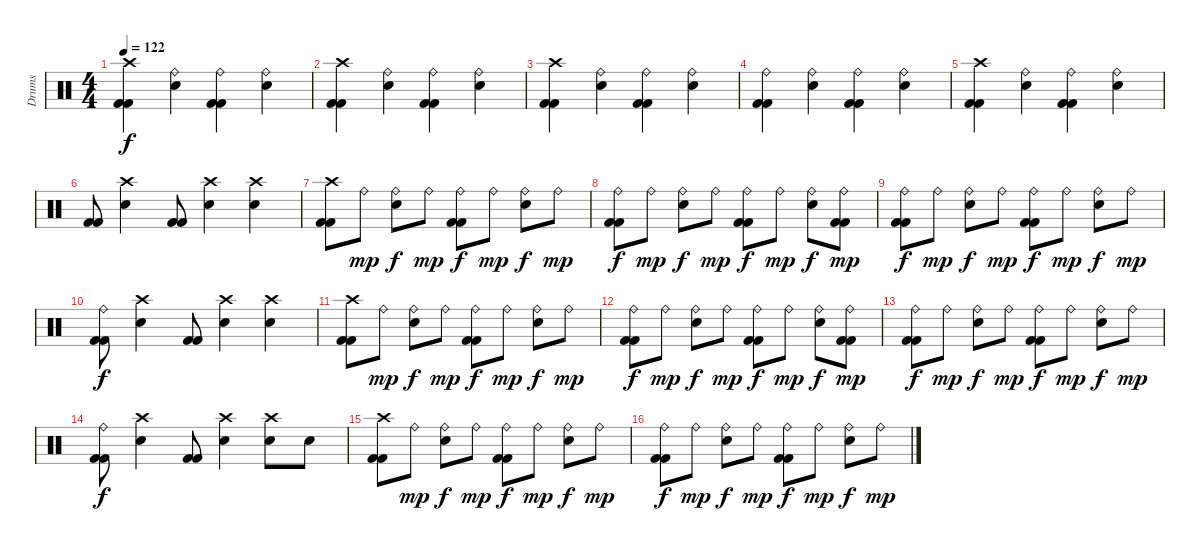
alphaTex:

\track ("Drums" "Drums") {instrument percussion}
\staff {score}
\articulation defaults
\ts (4 4)
\tempo 122
\clef neutral
\ks c
("Crash high (hit)" "Kick (hit) 2" "Kick (hit) 2").4{dy f} ("Ride (bell)" "Snare (hit) 2").4 ("Ride (bell)" "Kick (hit) 2" "Kick (hit) 2").4 ("Ride (bell)" "Snare (hit) 2").4 |
("Crash high (hit)" "Kick (hit) 2" "Kick (hit) 2").4 ("Ride (bell)" "Snare (hit) 2").4 ("Ride (bell)" "Kick (hit) 2" "Kick (hit) 2").4 ("Ride (bell)" "Snare (hit) 2").4 |
("Crash high (hit)" "Kick (hit) 2" "Kick (hit) 2").4 ("Ride (bell)" "Snare (hit) 2").4 ("Ride (bell)" "Kick (hit) 2" "Kick (hit) 2").4 ("Ride (bell)" "Snare (hit) 2").4 |
("Ride (bell)" "Kick (hit) 2" "Kick (hit) 2").4 ("Ride (bell)" "Snare (hit) 2").4 ("Ride (bell)" "Kick (hit) 2" "Kick (hit) 2").4 ("Ride (bell)" "Snare (hit) 2").4 |
("Crash high (hit)" "Kick (hit) 2" "Kick (hit) 2").4 ("Ride (bell)" "Snare (hit) 2").4 ("Ride (bell)" "Kick (hit) 2" "Kick (hit) 2").4 ("Ride (bell)" "Snare (hit) 2").4 |
("Kick (hit) 2" "Kick (hit) 2").8 ("Crash high (hit)" "Snare (hit) 2").4 ("Kick (hit) 2" "Kick (hit) 2").8 ("Crash high (hit)" "Snare (hit) 2").4 ("Crash high (hit)" "Snare (hit) 2").4 |
("Crash high (hit)" "Kick (hit) 2" "Kick (hit) 2").8 "Ride (bell)".8{dy mp} ("Ride (bell)" "Snare (hit) 2").8{dy f} "Ride (bell)".8{dy mp} ("Ride (bell)" "Kick (hit) 2" "Kick (hit) 2").8{dy f} "Ride (bell)".8{dy mp} ("Ride (bell)" "Snare (hit) 2").8{dy f} "Ride (bell)".8{dy mp} |
("Ride (bell)" "Kick (hit) 2" "Kick (hit) 2").8{dy f} "Ride (bell)".8{dy mp} ("Ride (bell)" "Snare (hit) 2").8{dy f} "Ride (bell)".8{dy mp} ("Ride (bell)" "Kick (hit) 2" "Kick (hit) 2").8{dy f} "Ride (bell)".8{dy mp} ("Ride (bell)" "Snare (hit) 2").8{dy f} ("Ride (bell)" "Kick (hit) 2" "Kick (hit) 2").8{dy mp} |
("Ride (bell)" "Kick (hit) 2" "Kick (hit) 2").8{dy f} "Ride (bell)".8{dy mp} ("Ride (bell)" "Snare (hit) 2").8{dy f} "Ride (bell)".8{dy mp} ("Ride (bell)" "Kick (hit) 2" "Kick (hit) 2").8{dy f} "Ride (bell)".8{dy mp} ("Ride (bell)" "Snare (hit) 2").8{dy f} "Ride (bell)".8{dy mp} |
("Ride (bell)" "Kick (hit) 2" "Kick (hit) 2").8{dy f} ("Crash high (hit)" "Snare (hit) 2").4 ("Kick (hit) 2" "Kick (hit) 2").8 ("Crash high (hit)" "Snare (hit) 2").4 ("Crash high (hit)" "Snare (hit) 2").4 |
("Crash high (hit)" "Kick (hit) 2" "Kick (hit) 2").8 "Ride (bell)".8{dy mp} ("Ride (bell)" "Snare (hit) 2").8{dy f} "Ride (bell)".8{dy mp} ("Ride (bell)" "Kick (hit) 2" "Kick (hit) 2").8{dy f} "Ride (bell)".8{dy mp} ("Ride (bell)" "Snare (hit) 2").8{dy f} "Ride (bell)".8{dy mp} |
("Ride (bell)" "Kick (hit) 2" "Kick (hit) 2").8{dy f} "Ride (bell)".8{dy mp} ("Ride (bell)" "Snare (hit) 2").8{dy f} "Ride (bell)".8{dy mp} ("Ride (bell)" "Kick (hit) 2" "Kick (hit) 2").8{dy f} "Ride (bell)".8{dy mp} ("Ride (bell)" "Snare (hit) 2").8{dy f} ("Ride (bell)" "Kick (hit) 2" "Kick (hit) 2").8{dy mp} |
("Ride (bell)" "Kick (hit) 2" "Kick (hit) 2").8{dy f} "Ride (bell)".8{dy mp} ("Ride (bell)" "Snare (hit) 2").8{dy f} "Ride (bell)".8{dy mp} ("Ride (bell)" "Kick (hit) 2" "Kick (hit) 2").8{dy f} "Ride (bell)".8{dy mp} ("Ride (bell)" "Snare (hit) 2").8{dy f} "Ride (bell)".8{dy mp} |
("Ride (bell)" "Kick (hit) 2" "Kick (hit) 2").8{dy f} ("Crash high (hit)" "Snare (hit) 2").4 ("Kick (hit) 2" "Kick (hit) 2").8 ("Crash high (hit)" "Snare (hit) 2").4 ("Crash high (hit)" "Snare (hit) 2").8 "Snare (hit) 2".8 |
("Crash high (hit)" "Kick (hit) 2" "Kick (hit) 2").8 "Ride (bell)".8{dy mp} ("Ride (bell)" "Snare (hit) 2").8{dy f} "Ride (bell)".8{dy mp} ("Ride (bell)" "Kick (hit) 2" "Kick (hit) 2").8{dy f} "Ride (bell)".8{dy mp} ("Ride (bell)" "Snare (hit) 2").8{dy f} "Ride (bell)".8{dy mp} |
("Ride (bell)" "Kick (hit) 2" "Kick (hit) 2").8{dy f} "Ride (bell)".8{dy mp} ("Ride (bell)" "Snare (hit) 2").8{dy f} "Ride (bell)".8{dy mp} ("Ride (bell)" "Kick (hit) 2" "Kick (hit) 2").8{dy f} "Ride (bell)".8{dy mp} ("Ride (bell)" "Snare (hit) 2").8{dy f} "Ride (bell)".8{dy mp}
